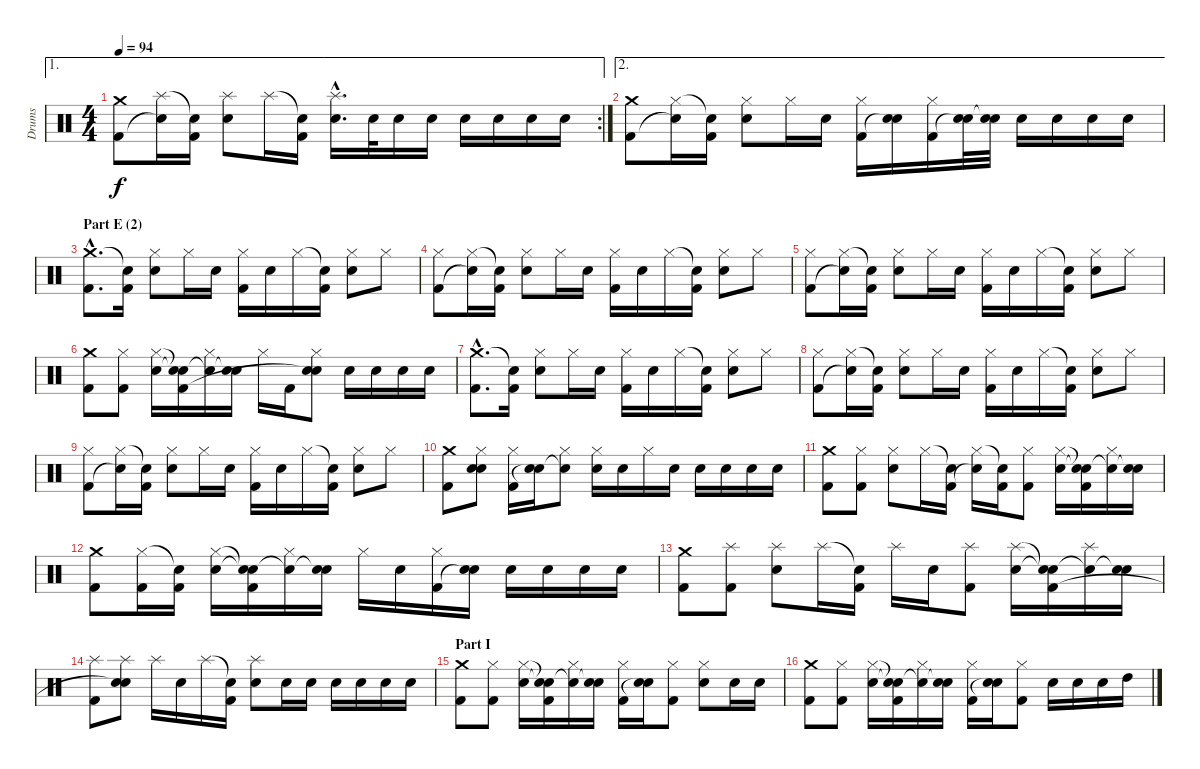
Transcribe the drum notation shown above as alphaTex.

\track ("Drums" "Drums") {instrument percussion}
\staff {score}
\articulation defaults
\ae 1
\rc 2
\ts (4 4)
\tempo 94
\clef neutral
\ks c
("Crash medium (hit)" "Kick (hit) 2").8{dy f} ("Splash (hit)" "Snare (hit)"{t}).16 ("Snare (hit)"{t} "Kick (hit) 2").16 ("Splash (hit)" "Electric Snare (hit)").8 "Splash (hit)".16 ("Snare (hit)"{t} "Kick (hit) 2").16 ("Splash (hit)"{hac} "Electric Snare (hit)"{hac}).16{d} "Electric Snare (hit)".32 "Electric Snare (hit)".16 "Electric Snare (hit)".16 "Electric Snare (hit)".16 "Electric Snare (hit)".16 "Electric Snare (hit)".16 "Electric Snare (hit)".16 |
\ae 2
("Crash medium (hit)" "Kick (hit) 2").8 ("Hi-Hat (closed)" "Snare (hit)"{t}).16 ("Snare (hit)"{t} "Kick (hit) 2").16 ("Hi-Hat (closed)" "Electric Snare (hit)").8 "Hi-Hat (closed)".16 "Electric Snare (hit)".16 ("Hi-Hat (closed)" "Kick (hit) 2").16 ("Electric Snare (hit)" "Snare (hit)"{t}).16 ("Hi-Hat (closed)" "Kick (hit) 2").16 ("Electric Snare (hit)" "Snare (hit)"{t}).32 ("Electric Snare (hit)" "Snare (hit)"{t}).32 "Electric Snare (hit)".16 "Electric Snare (hit)".16 "Electric Snare (hit)".16 "Electric Snare (hit)".16 |
\section ("" "Part E (2)")
("Crash medium (hit)"{hac} "Kick (hit) 2"{hac}).8{d} ("Snare (hit)"{t} "Kick (hit) 2").16 ("Hi-Hat (closed)" "Electric Snare (hit)").8 "Hi-Hat (closed)".16 "Electric Snare (hit)".16 ("Hi-Hat (closed)" "Kick (hit) 2").16 "Electric Snare (hit)".16 "Hi-Hat (closed)".16 ("Snare (hit)"{t} "Kick (hit) 2").16 ("Hi-Hat (closed)" "Electric Snare (hit)").8 "Hi-Hat (closed)".8 |
("Hi-Hat (closed)" "Kick (hit) 2").8 ("Hi-Hat (closed)" "Snare (hit)"{t}).16 ("Snare (hit)"{t} "Kick (hit) 2").16 ("Hi-Hat (closed)" "Electric Snare (hit)").8 "Hi-Hat (closed)".16 "Electric Snare (hit)".16 ("Hi-Hat (closed)" "Kick (hit) 2").16 "Electric Snare (hit)".16 "Hi-Hat (closed)".16 ("Snare (hit)"{t} "Kick (hit) 2").16 ("Hi-Hat (closed)" "Electric Snare (hit)").8 "Hi-Hat (closed)".8 |
("Hi-Hat (closed)" "Kick (hit) 2").8 ("Hi-Hat (closed)" "Snare (hit)"{t}).16 ("Snare (hit)"{t} "Kick (hit) 2").16 ("Hi-Hat (closed)" "Electric Snare (hit)").8 "Hi-Hat (closed)".16 "Electric Snare (hit)".16 ("Hi-Hat (closed)" "Kick (hit) 2").16 "Electric Snare (hit)".16 "Hi-Hat (closed)".16 ("Snare (hit)"{t} "Kick (hit) 2").16 ("Hi-Hat (closed)" "Electric Snare (hit)").8 "Hi-Hat (closed)".8 |
("Crash medium (hit)" "Kick (hit) 2").8 ("Hi-Hat (closed)" "Kick (hit) 2").8 ("Hi-Hat (closed)" "Electric Snare (hit)").16 ("Snare (hit)"{t} "Snare (hit)"{t} "Kick (hit) 2").16 ("Hi-Hat (closed)" "Snare (hit)"{t}).16 ("Electric Snare (hit)" "Snare (hit)"{t}).16 "Hi-Hat (closed)".16 "Kick (hit) 2".16 ("Hi-Hat (closed)" "Electric Snare (hit)" "Snare (hit)"{t}).8 "Electric Snare (hit)".16 "Electric Snare (hit)".16 "Electric Snare (hit)".16 "Electric Snare (hit)".16 |
("Crash medium (hit)"{hac} "Kick (hit) 2"{hac}).8{d} ("Snare (hit)"{t} "Kick (hit) 2").16 ("Hi-Hat (closed)" "Electric Snare (hit)").8 "Hi-Hat (closed)".16 "Electric Snare (hit)".16 ("Hi-Hat (closed)" "Kick (hit) 2").16 "Electric Snare (hit)".16 "Hi-Hat (closed)".16 ("Snare (hit)"{t} "Kick (hit) 2").16 ("Hi-Hat (closed)" "Electric Snare (hit)").8 "Hi-Hat (closed)".8 |
("Hi-Hat (closed)" "Kick (hit) 2").8 ("Hi-Hat (closed)" "Snare (hit)"{t}).16 ("Snare (hit)"{t} "Kick (hit) 2").16 ("Hi-Hat (closed)" "Electric Snare (hit)").8 "Hi-Hat (closed)".16 "Electric Snare (hit)".16 ("Hi-Hat (closed)" "Kick (hit) 2").16 "Electric Snare (hit)".16 "Hi-Hat (closed)".16 ("Snare (hit)"{t} "Kick (hit) 2").16 ("Hi-Hat (closed)" "Electric Snare (hit)").8 "Hi-Hat (closed)".8 |
("Hi-Hat (closed)" "Kick (hit) 2").8 ("Hi-Hat (closed)" "Snare (hit)"{t}).16 ("Snare (hit)"{t} "Kick (hit) 2").16 ("Hi-Hat (closed)" "Electric Snare (hit)").8 "Hi-Hat (closed)".16 "Electric Snare (hit)".16 ("Hi-Hat (closed)" "Kick (hit) 2").16 "Electric Snare (hit)".16 "Hi-Hat (closed)".16 ("Snare (hit)"{t} "Kick (hit) 2").16 ("Hi-Hat (closed)" "Electric Snare (hit)").8 "Hi-Hat (closed)".8 |
("Crash medium (hit)" "Kick (hit) 2").8 ("Hi-Hat (closed)" "Electric Snare (hit)" "Snare (hit)").8 ("Hi-Hat (closed)" "Kick (hit) 2").16 ("Electric Snare (hit)" "Snare (hit)"{t}).16 ("Hi-Hat (closed)" "Snare (hit)"{t}).8 ("Hi-Hat (closed)" "Electric Snare (hit)").16 "Electric Snare (hit)".16 "Hi-Hat (closed)".16 "Electric Snare (hit)".16 "Electric Snare (hit)".16 "Electric Snare (hit)".16 "Electric Snare (hit)".16 "Electric Snare (hit)".16 |
("Crash medium (hit)" "Kick (hit) 2").8 ("Hi-Hat (closed)" "Kick (hit) 2").8 ("Hi-Hat (closed)" "Electric Snare (hit)").8 "Hi-Hat (closed)".16 ("Snare (hit)"{t} "Kick (hit) 2").16 ("Hi-Hat (closed)" "Snare (hit)"{t}).16 ("Snare (hit)"{t} "Kick (hit) 2").16 ("Hi-Hat (closed)" "Kick (hit) 2").8 ("Hi-Hat (closed)" "Electric Snare (hit)").16 ("Snare (hit)"{t} "Snare (hit)"{t} "Kick (hit) 2").16 ("Hi-Hat (closed)" "Snare (hit)"{t}).16 ("Electric Snare (hit)" "Snare (hit)"{t}).16 |
("Crash medium (hit)" "Kick (hit) 2").8 ("Hi-Hat (closed)" "Kick (hit) 2").16 ("Snare (hit)"{t} "Kick (hit) 2").16 ("Hi-Hat (closed)" "Electric Snare (hit)").16 ("Snare (hit)"{t} "Snare (hit)"{t} "Kick (hit) 2").16 ("Hi-Hat (closed)" "Snare (hit)"{t}).16 ("Electric Snare (hit)" "Snare (hit)"{t}).16 "Hi-Hat (closed)".16 "Electric Snare (hit)".16 ("Hi-Hat (closed)" "Kick (hit) 2").16 ("Electric Snare (hit)" "Snare (hit)"{t}).16 "Electric Snare (hit)".16 "Electric Snare (hit)".16 "Electric Snare (hit)".16 "Electric Snare (hit)".16 |
("Crash medium (hit)" "Kick (hit) 2").8 ("Splash (hit)" "Kick (hit) 2").8 ("Splash (hit)" "Electric Snare (hit)").8 "Splash (hit)".16 ("Snare (hit)"{t} "Kick (hit) 2").16 "Splash (hit)".16 "Electric Snare (hit)".16 ("Splash (hit)" "Kick (hit) 2").8 ("Splash (hit)" "Electric Snare (hit)").16 ("Snare (hit)"{t} "Snare (hit)"{t} "Kick (hit) 2").16 ("Splash (hit)" "Snare (hit)"{t}).16 ("Electric Snare (hit)" "Snare (hit)"{t}).16 |
("Splash (hit)" "Kick (hit) 2").8 ("Splash (hit)" "Electric Snare (hit)" "Snare (hit)"{t}).8 "Splash (hit)".16 "Electric Snare (hit)".16 "Splash (hit)".16 ("Snare (hit)"{t} "Kick (hit) 2").16 ("Splash (hit)" "Electric Snare (hit)").8 "Electric Snare (hit)".16 "Electric Snare (hit)".16 "Electric Snare (hit)".16 "Electric Snare (hit)".16 "Electric Snare (hit)".16 "Electric Snare (hit)".16 |
\section ("" "Part I")
("Crash medium (hit)" "Kick (hit) 2").8 ("Hi-Hat (closed)" "Kick (hit) 2").8 ("Hi-Hat (closed)" "Electric Snare (hit)").16 ("Snare (hit)"{t} "Snare (hit)"{t} "Kick (hit) 2").16 ("Hi-Hat (closed)" "Snare (hit)"{t}).16 ("Electric Snare (hit)" "Snare (hit)"{t}).16 ("Hi-Hat (closed)" "Kick (hit) 2").16 ("Electric Snare (hit)" "Snare (hit)"{t}).16 ("Hi-Hat (closed)" "Kick (hit) 2").8 ("Hi-Hat (closed)" "Electric Snare (hit)").8 "Electric Snare (hit)".16 "Electric Snare (hit)".16 |
("Crash medium (hit)" "Kick (hit) 2").8 ("Hi-Hat (closed)" "Kick (hit) 2").8 ("Hi-Hat (closed)" "Electric Snare (hit)").16 ("Snare (hit)"{t} "Snare (hit)"{t} "Kick (hit) 2").16 ("Hi-Hat (closed)" "Snare (hit)"{t}).16 ("Electric Snare (hit)" "Snare (hit)"{t}).16 ("Hi-Hat (closed)" "Kick (hit) 2").16 ("Electric Snare (hit)" "Snare (hit)"{t}).16 ("Hi-Hat (closed)" "Kick (hit) 2").8 "Electric Snare (hit)".16 "Electric Snare (hit)".16 "Electric Snare (hit)".16 "High Tom (hit)".16
